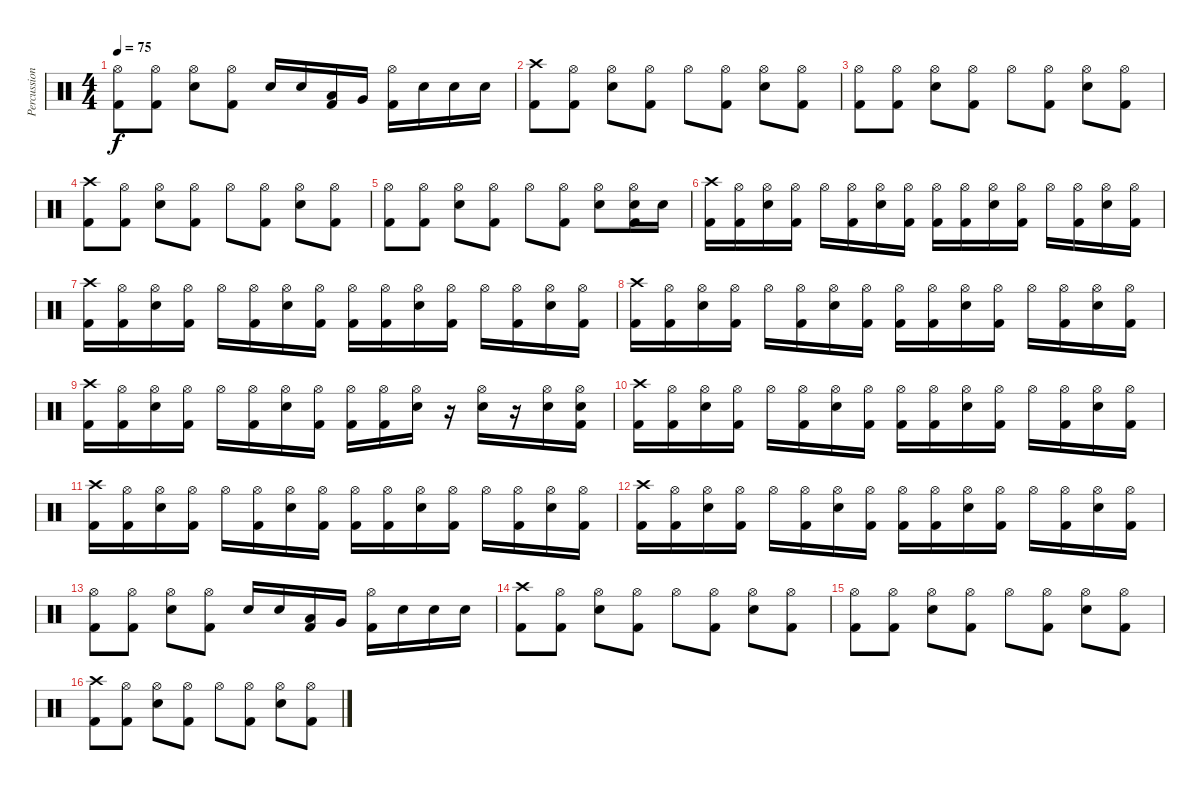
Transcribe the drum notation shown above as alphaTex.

\track ("Percussion" "Percussion") {instrument percussion}
\staff {score}
\articulation defaults
\ts (4 4)
\tempo 75
\clef neutral
\ks c
("Hi-Hat (open)" "Kick (hit) 2").8{dy f} ("Hi-Hat (open)" "Kick (hit) 2").8 ("Hi-Hat (open)" "Electric Snare (hit)").8 ("Hi-Hat (open)" "Kick (hit) 2").8 "Electric Snare (hit)".16 "Electric Snare (hit)".16 ("Low Tom (hit)" "Kick (hit) 2").16 "Very Low Tom (hit)".16 ("Hi-Hat (open)" "Kick (hit) 2").16 "Electric Snare (hit)".16 "Electric Snare (hit)".16 "Electric Snare (hit)".16 |
("Crash high (hit)" "Kick (hit) 2").8 ("Hi-Hat (open)" "Kick (hit) 2").8 ("Hi-Hat (open)" "Electric Snare (hit)").8 ("Hi-Hat (open)" "Kick (hit) 2").8 "Hi-Hat (open)".8 ("Hi-Hat (open)" "Kick (hit) 2").8 ("Hi-Hat (open)" "Electric Snare (hit)").8 ("Hi-Hat (open)" "Kick (hit) 2").8 |
("Hi-Hat (open)" "Kick (hit) 2").8 ("Hi-Hat (open)" "Kick (hit) 2").8 ("Hi-Hat (open)" "Electric Snare (hit)").8 ("Hi-Hat (open)" "Kick (hit) 2").8 "Hi-Hat (open)".8 ("Hi-Hat (open)" "Kick (hit) 2").8 ("Hi-Hat (open)" "Electric Snare (hit)").8 ("Hi-Hat (open)" "Kick (hit) 2").8 |
("Crash high (hit)" "Kick (hit) 2").8 ("Hi-Hat (open)" "Kick (hit) 2").8 ("Hi-Hat (open)" "Electric Snare (hit)").8 ("Hi-Hat (open)" "Kick (hit) 2").8 "Hi-Hat (open)".8 ("Hi-Hat (open)" "Kick (hit) 2").8 ("Hi-Hat (open)" "Electric Snare (hit)").8 ("Hi-Hat (open)" "Kick (hit) 2").8 |
("Hi-Hat (open)" "Kick (hit) 2").8 ("Hi-Hat (open)" "Kick (hit) 2").8 ("Hi-Hat (open)" "Electric Snare (hit)").8 ("Hi-Hat (open)" "Kick (hit) 2").8 "Hi-Hat (open)".8 ("Hi-Hat (open)" "Kick (hit) 2").8 ("Hi-Hat (open)" "Electric Snare (hit)").8 ("Hi-Hat (open)" "Electric Snare (hit)" "Kick (hit) 2").16 "Electric Snare (hit)".16 |
("Crash high (hit)" "Kick (hit) 2").16 ("Hi-Hat (open)" "Kick (hit) 2").16 ("Hi-Hat (open)" "Electric Snare (hit)").16 ("Hi-Hat (open)" "Kick (hit) 2").16 "Hi-Hat (open)".16 ("Hi-Hat (open)" "Kick (hit) 2").16 ("Hi-Hat (open)" "Electric Snare (hit)").16 ("Hi-Hat (open)" "Kick (hit) 2").16 ("Hi-Hat (open)" "Kick (hit) 2").16 ("Hi-Hat (open)" "Kick (hit) 2").16 ("Hi-Hat (open)" "Electric Snare (hit)").16 ("Hi-Hat (open)" "Kick (hit) 2").16 "Hi-Hat (open)".16 ("Hi-Hat (open)" "Kick (hit) 2").16 ("Hi-Hat (open)" "Electric Snare (hit)").16 ("Hi-Hat (open)" "Kick (hit) 2").16 |
("Crash high (hit)" "Kick (hit) 2").16 ("Hi-Hat (open)" "Kick (hit) 2").16 ("Hi-Hat (open)" "Electric Snare (hit)").16 ("Hi-Hat (open)" "Kick (hit) 2").16 "Hi-Hat (open)".16 ("Hi-Hat (open)" "Kick (hit) 2").16 ("Hi-Hat (open)" "Electric Snare (hit)").16 ("Hi-Hat (open)" "Kick (hit) 2").16 ("Hi-Hat (open)" "Kick (hit) 2").16 ("Hi-Hat (open)" "Kick (hit) 2").16 ("Hi-Hat (open)" "Electric Snare (hit)").16 ("Hi-Hat (open)" "Kick (hit) 2").16 "Hi-Hat (open)".16 ("Hi-Hat (open)" "Kick (hit) 2").16 ("Hi-Hat (open)" "Electric Snare (hit)").16 ("Hi-Hat (open)" "Kick (hit) 2").16 |
("Crash high (hit)" "Kick (hit) 2").16 ("Hi-Hat (open)" "Kick (hit) 2").16 ("Hi-Hat (open)" "Electric Snare (hit)").16 ("Hi-Hat (open)" "Kick (hit) 2").16 "Hi-Hat (open)".16 ("Hi-Hat (open)" "Kick (hit) 2").16 ("Hi-Hat (open)" "Electric Snare (hit)").16 ("Hi-Hat (open)" "Kick (hit) 2").16 ("Hi-Hat (open)" "Kick (hit) 2").16 ("Hi-Hat (open)" "Kick (hit) 2").16 ("Hi-Hat (open)" "Electric Snare (hit)").16 ("Hi-Hat (open)" "Kick (hit) 2").16 "Hi-Hat (open)".16 ("Hi-Hat (open)" "Kick (hit) 2").16 ("Hi-Hat (open)" "Electric Snare (hit)").16 ("Hi-Hat (open)" "Kick (hit) 2").16 |
("Crash high (hit)" "Kick (hit) 2").16 ("Hi-Hat (open)" "Kick (hit) 2").16 ("Hi-Hat (open)" "Electric Snare (hit)").16 ("Hi-Hat (open)" "Kick (hit) 2").16 "Hi-Hat (open)".16 ("Hi-Hat (open)" "Kick (hit) 2").16 ("Hi-Hat (open)" "Electric Snare (hit)").16 ("Hi-Hat (open)" "Kick (hit) 2").16 ("Hi-Hat (open)" "Kick (hit) 2").16 ("Hi-Hat (open)" "Kick (hit) 2").16 ("Hi-Hat (open)" "Electric Snare (hit)").16 r.16 ("Hi-Hat (open)" "Electric Snare (hit)").16 r.16 ("Hi-Hat (open)" "Electric Snare (hit)").16 ("Hi-Hat (open)" "Electric Snare (hit)" "Kick (hit) 2").16 |
("Crash high (hit)" "Kick (hit) 2").16 ("Hi-Hat (open)" "Kick (hit) 2").16 ("Hi-Hat (open)" "Electric Snare (hit)").16 ("Hi-Hat (open)" "Kick (hit) 2").16 "Hi-Hat (open)".16 ("Hi-Hat (open)" "Kick (hit) 2").16 ("Hi-Hat (open)" "Electric Snare (hit)").16 ("Hi-Hat (open)" "Kick (hit) 2").16 ("Hi-Hat (open)" "Kick (hit) 2").16 ("Hi-Hat (open)" "Kick (hit) 2").16 ("Hi-Hat (open)" "Electric Snare (hit)").16 ("Hi-Hat (open)" "Kick (hit) 2").16 "Hi-Hat (open)".16 ("Hi-Hat (open)" "Kick (hit) 2").16 ("Hi-Hat (open)" "Electric Snare (hit)").16 ("Hi-Hat (open)" "Kick (hit) 2").16 |
("Crash high (hit)" "Kick (hit) 2").16 ("Hi-Hat (open)" "Kick (hit) 2").16 ("Hi-Hat (open)" "Electric Snare (hit)").16 ("Hi-Hat (open)" "Kick (hit) 2").16 "Hi-Hat (open)".16 ("Hi-Hat (open)" "Kick (hit) 2").16 ("Hi-Hat (open)" "Electric Snare (hit)").16 ("Hi-Hat (open)" "Kick (hit) 2").16 ("Hi-Hat (open)" "Kick (hit) 2").16 ("Hi-Hat (open)" "Kick (hit) 2").16 ("Hi-Hat (open)" "Electric Snare (hit)").16 ("Hi-Hat (open)" "Kick (hit) 2").16 "Hi-Hat (open)".16 ("Hi-Hat (open)" "Kick (hit) 2").16 ("Hi-Hat (open)" "Electric Snare (hit)").16 ("Hi-Hat (open)" "Kick (hit) 2").16 |
("Crash high (hit)" "Kick (hit) 2").16 ("Hi-Hat (open)" "Kick (hit) 2").16 ("Hi-Hat (open)" "Electric Snare (hit)").16 ("Hi-Hat (open)" "Kick (hit) 2").16 "Hi-Hat (open)".16 ("Hi-Hat (open)" "Kick (hit) 2").16 ("Hi-Hat (open)" "Electric Snare (hit)").16 ("Hi-Hat (open)" "Kick (hit) 2").16 ("Hi-Hat (open)" "Kick (hit) 2").16 ("Hi-Hat (open)" "Kick (hit) 2").16 ("Hi-Hat (open)" "Electric Snare (hit)").16 ("Hi-Hat (open)" "Kick (hit) 2").16 "Hi-Hat (open)".16 ("Hi-Hat (open)" "Kick (hit) 2").16 ("Hi-Hat (open)" "Electric Snare (hit)").16 ("Hi-Hat (open)" "Kick (hit) 2").16 |
("Hi-Hat (open)" "Kick (hit) 2").8 ("Hi-Hat (open)" "Kick (hit) 2").8 ("Hi-Hat (open)" "Electric Snare (hit)").8 ("Hi-Hat (open)" "Kick (hit) 2").8 "Electric Snare (hit)".16 "Electric Snare (hit)".16 ("Low Tom (hit)" "Kick (hit) 2").16 "Very Low Tom (hit)".16 ("Hi-Hat (open)" "Kick (hit) 2").16 "Electric Snare (hit)".16 "Electric Snare (hit)".16 "Electric Snare (hit)".16 |
("Crash high (hit)" "Kick (hit) 2").8 ("Hi-Hat (open)" "Kick (hit) 2").8 ("Hi-Hat (open)" "Electric Snare (hit)").8 ("Hi-Hat (open)" "Kick (hit) 2").8 "Hi-Hat (open)".8 ("Hi-Hat (open)" "Kick (hit) 2").8 ("Hi-Hat (open)" "Electric Snare (hit)").8 ("Hi-Hat (open)" "Kick (hit) 2").8 |
("Hi-Hat (open)" "Kick (hit) 2").8 ("Hi-Hat (open)" "Kick (hit) 2").8 ("Hi-Hat (open)" "Electric Snare (hit)").8 ("Hi-Hat (open)" "Kick (hit) 2").8 "Hi-Hat (open)".8 ("Hi-Hat (open)" "Kick (hit) 2").8 ("Hi-Hat (open)" "Electric Snare (hit)").8 ("Hi-Hat (open)" "Kick (hit) 2").8 |
("Crash high (hit)" "Kick (hit) 2").8 ("Hi-Hat (open)" "Kick (hit) 2").8 ("Hi-Hat (open)" "Electric Snare (hit)").8 ("Hi-Hat (open)" "Kick (hit) 2").8 "Hi-Hat (open)".8 ("Hi-Hat (open)" "Kick (hit) 2").8 ("Hi-Hat (open)" "Electric Snare (hit)").8 ("Hi-Hat (open)" "Kick (hit) 2").8
